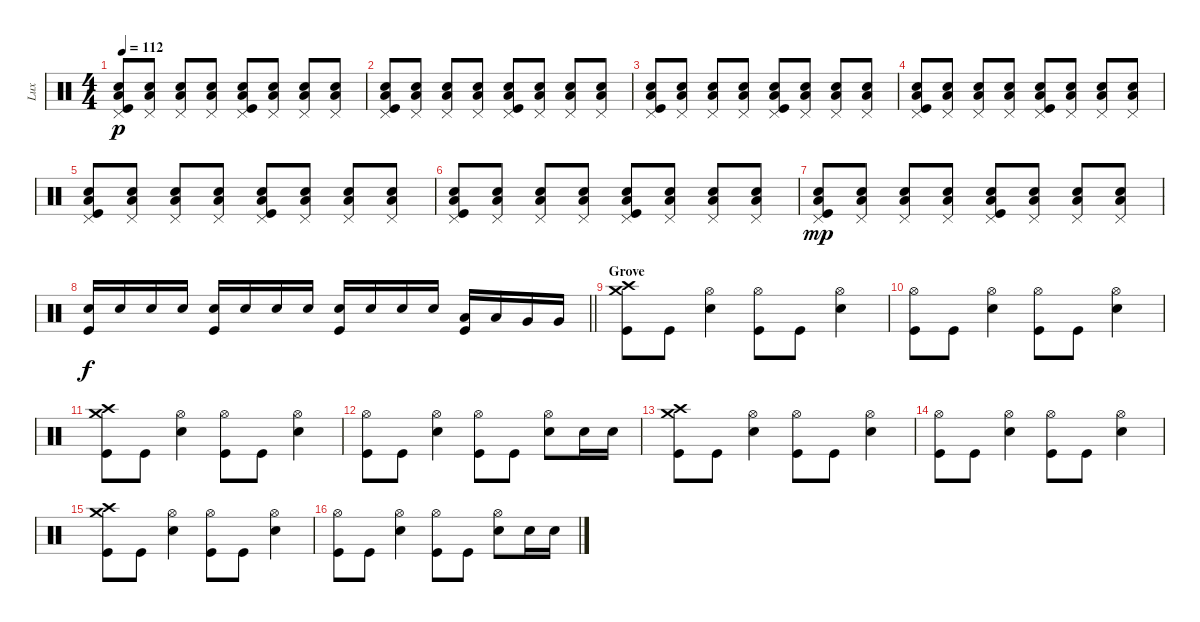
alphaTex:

\track ("Lux" "Lux") {instrument percussion bank 32}
\staff {score}
\articulation defaults
\ts (4 4)
\tempo 112
\clef neutral
\ks c
("Low Tom (hit)" "Snare (hit) 2" "Pedal Hi-Hat (hit)" "Kick (hit)").8{dy p} ("Low Tom (hit)" "Snare (hit) 2" "Pedal Hi-Hat (hit)").8 ("Low Tom (hit)" "Snare (hit) 2" "Pedal Hi-Hat (hit)").8 ("Low Tom (hit)" "Snare (hit) 2" "Pedal Hi-Hat (hit)").8 ("Low Tom (hit)" "Snare (hit) 2" "Pedal Hi-Hat (hit)" "Kick (hit)").8 ("Low Tom (hit)" "Snare (hit) 2" "Pedal Hi-Hat (hit)").8 ("Low Tom (hit)" "Snare (hit) 2" "Pedal Hi-Hat (hit)").8 ("Low Tom (hit)" "Snare (hit) 2" "Pedal Hi-Hat (hit)").8 |
("Low Tom (hit)" "Snare (hit) 2" "Pedal Hi-Hat (hit)" "Kick (hit)").8 ("Low Tom (hit)" "Snare (hit) 2" "Pedal Hi-Hat (hit)").8 ("Low Tom (hit)" "Snare (hit) 2" "Pedal Hi-Hat (hit)").8 ("Low Tom (hit)" "Snare (hit) 2" "Pedal Hi-Hat (hit)").8 ("Low Tom (hit)" "Snare (hit) 2" "Pedal Hi-Hat (hit)" "Kick (hit)").8 ("Low Tom (hit)" "Snare (hit) 2" "Pedal Hi-Hat (hit)").8 ("Low Tom (hit)" "Snare (hit) 2" "Pedal Hi-Hat (hit)").8 ("Low Tom (hit)" "Snare (hit) 2" "Pedal Hi-Hat (hit)").8 |
("Low Tom (hit)" "Snare (hit) 2" "Pedal Hi-Hat (hit)" "Kick (hit)").8 ("Low Tom (hit)" "Snare (hit) 2" "Pedal Hi-Hat (hit)").8 ("Low Tom (hit)" "Snare (hit) 2" "Pedal Hi-Hat (hit)").8 ("Low Tom (hit)" "Snare (hit) 2" "Pedal Hi-Hat (hit)").8 ("Low Tom (hit)" "Snare (hit) 2" "Pedal Hi-Hat (hit)" "Kick (hit)").8 ("Low Tom (hit)" "Snare (hit) 2" "Pedal Hi-Hat (hit)").8 ("Low Tom (hit)" "Snare (hit) 2" "Pedal Hi-Hat (hit)").8 ("Low Tom (hit)" "Snare (hit) 2" "Pedal Hi-Hat (hit)").8 |
("Low Tom (hit)" "Snare (hit) 2" "Pedal Hi-Hat (hit)" "Kick (hit)").8 ("Low Tom (hit)" "Snare (hit) 2" "Pedal Hi-Hat (hit)").8 ("Low Tom (hit)" "Snare (hit) 2" "Pedal Hi-Hat (hit)").8 ("Low Tom (hit)" "Snare (hit) 2" "Pedal Hi-Hat (hit)").8 ("Low Tom (hit)" "Snare (hit) 2" "Pedal Hi-Hat (hit)" "Kick (hit)").8 ("Low Tom (hit)" "Snare (hit) 2" "Pedal Hi-Hat (hit)").8 ("Low Tom (hit)" "Snare (hit) 2" "Pedal Hi-Hat (hit)").8 ("Low Tom (hit)" "Snare (hit) 2" "Pedal Hi-Hat (hit)").8 |
("Low Tom (hit)" "Snare (hit) 2" "Pedal Hi-Hat (hit)" "Kick (hit)").8 ("Low Tom (hit)" "Snare (hit) 2" "Pedal Hi-Hat (hit)").8 ("Low Tom (hit)" "Snare (hit) 2" "Pedal Hi-Hat (hit)").8 ("Low Tom (hit)" "Snare (hit) 2" "Pedal Hi-Hat (hit)").8 ("Low Tom (hit)" "Snare (hit) 2" "Pedal Hi-Hat (hit)" "Kick (hit)").8 ("Low Tom (hit)" "Snare (hit) 2" "Pedal Hi-Hat (hit)").8 ("Low Tom (hit)" "Snare (hit) 2" "Pedal Hi-Hat (hit)").8 ("Low Tom (hit)" "Snare (hit) 2" "Pedal Hi-Hat (hit)").8 |
("Low Tom (hit)" "Snare (hit) 2" "Pedal Hi-Hat (hit)" "Kick (hit)").8 ("Low Tom (hit)" "Snare (hit) 2" "Pedal Hi-Hat (hit)").8 ("Low Tom (hit)" "Snare (hit) 2" "Pedal Hi-Hat (hit)").8 ("Low Tom (hit)" "Snare (hit) 2" "Pedal Hi-Hat (hit)").8 ("Low Tom (hit)" "Snare (hit) 2" "Pedal Hi-Hat (hit)" "Kick (hit)").8 ("Low Tom (hit)" "Snare (hit) 2" "Pedal Hi-Hat (hit)").8 ("Low Tom (hit)" "Snare (hit) 2" "Pedal Hi-Hat (hit)").8 ("Low Tom (hit)" "Snare (hit) 2" "Pedal Hi-Hat (hit)").8 |
("Low Tom (hit)" "Snare (hit) 2" "Pedal Hi-Hat (hit)" "Kick (hit)").8{dy mp} ("Low Tom (hit)" "Snare (hit) 2" "Pedal Hi-Hat (hit)").8 ("Low Tom (hit)" "Snare (hit) 2" "Pedal Hi-Hat (hit)").8 ("Low Tom (hit)" "Snare (hit) 2" "Pedal Hi-Hat (hit)").8 ("Low Tom (hit)" "Snare (hit) 2" "Pedal Hi-Hat (hit)" "Kick (hit)").8 ("Low Tom (hit)" "Snare (hit) 2" "Pedal Hi-Hat (hit)").8 ("Low Tom (hit)" "Snare (hit) 2" "Pedal Hi-Hat (hit)").8 ("Low Tom (hit)" "Snare (hit) 2" "Pedal Hi-Hat (hit)").8 |
\barLineRight lightlight
("Snare (hit) 2" "Kick (hit)").16{dy f} "Snare (hit) 2".16 "Snare (hit) 2".16 "Snare (hit) 2".16 ("Snare (hit) 2" "Kick (hit)").16 "Snare (hit) 2".16 "Snare (hit) 2".16 "Snare (hit) 2".16 ("Snare (hit) 2" "Kick (hit)").16 "Snare (hit) 2".16 "Snare (hit) 2".16 "Snare (hit) 2".16 ("Low Tom (hit)" "Kick (hit)").16 "Low Tom (hit)".16 "Very Low Tom (hit)".16 "Very Low Tom (hit)".16 |
\section ("" "Grove")
("Crash high (hit)" "Crash medium (hit)" "Kick (hit)").8 "Kick (hit)".8 ("Hi-Hat (open)" "Snare (hit) 2").4 ("Hi-Hat (open)" "Kick (hit)").8 "Kick (hit)".8 ("Hi-Hat (open)" "Snare (hit) 2").4 |
("Hi-Hat (open)" "Kick (hit)").8 "Kick (hit)".8 ("Hi-Hat (open)" "Snare (hit) 2").4 ("Hi-Hat (open)" "Kick (hit)").8 "Kick (hit)".8 ("Hi-Hat (open)" "Snare (hit) 2").4 |
("Crash high (hit)" "Crash medium (hit)" "Kick (hit)").8 "Kick (hit)".8 ("Hi-Hat (open)" "Snare (hit) 2").4 ("Hi-Hat (open)" "Kick (hit)").8 "Kick (hit)".8 ("Hi-Hat (open)" "Snare (hit) 2").4 |
("Hi-Hat (open)" "Kick (hit)").8 "Kick (hit)".8 ("Hi-Hat (open)" "Snare (hit) 2").4 ("Hi-Hat (open)" "Kick (hit)").8 "Kick (hit)".8 ("Hi-Hat (open)" "Snare (hit) 2").8 "Snare (hit) 2".16 "Snare (hit) 2".16 |
("Crash high (hit)" "Crash medium (hit)" "Kick (hit)").8 "Kick (hit)".8 ("Hi-Hat (open)" "Snare (hit) 2").4 ("Hi-Hat (open)" "Kick (hit)").8 "Kick (hit)".8 ("Hi-Hat (open)" "Snare (hit) 2").4 |
("Hi-Hat (open)" "Kick (hit)").8 "Kick (hit)".8 ("Hi-Hat (open)" "Snare (hit) 2").4 ("Hi-Hat (open)" "Kick (hit)").8 "Kick (hit)".8 ("Hi-Hat (open)" "Snare (hit) 2").4 |
("Crash high (hit)" "Crash medium (hit)" "Kick (hit)").8 "Kick (hit)".8 ("Hi-Hat (open)" "Snare (hit) 2").4 ("Hi-Hat (open)" "Kick (hit)").8 "Kick (hit)".8 ("Hi-Hat (open)" "Snare (hit) 2").4 |
("Hi-Hat (open)" "Kick (hit)").8 "Kick (hit)".8 ("Hi-Hat (open)" "Snare (hit) 2").4 ("Hi-Hat (open)" "Kick (hit)").8 "Kick (hit)".8 ("Hi-Hat (open)" "Snare (hit) 2").8 "Snare (hit) 2".16 "Snare (hit) 2".16
